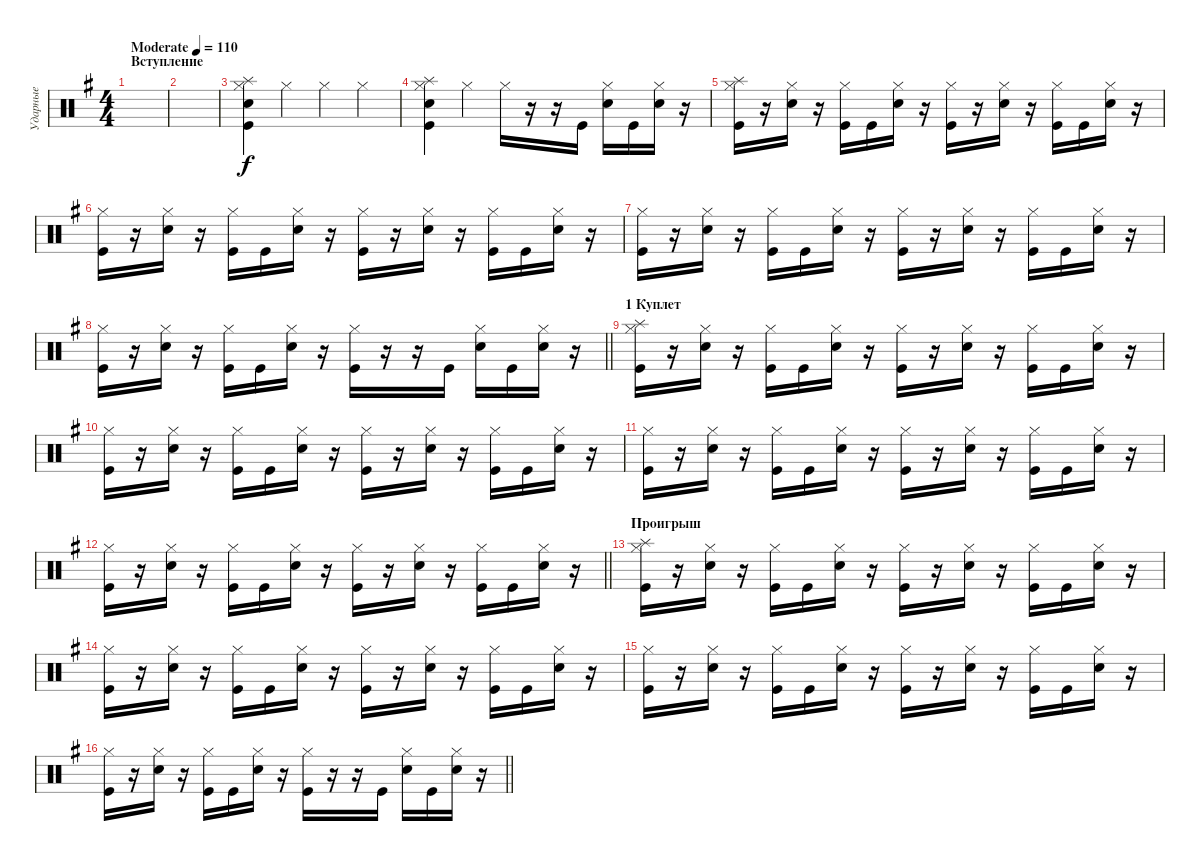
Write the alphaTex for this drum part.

\track ("Ударные" "Ударные") {instrument percussion}
\staff {score}
\articulation defaults
\ts (4 4)
\section ("" "Вступление")
\tempo (110 "Moderate")
\clef neutral
\ks eminor
|
|
("Hi-Hat (closed)" "Splash (hit)" "Electric Snare (hit)" "Kick (hit)").4 "Hi-Hat (closed)".4 "Hi-Hat (closed)".4 "Hi-Hat (closed)".4 |
("Hi-Hat (closed)" "Splash (hit)" "Electric Snare (hit)" "Kick (hit)").4 "Hi-Hat (closed)".4 "Hi-Hat (closed)".16 r.16 r.16 "Kick (hit)".16 ("Hi-Hat (closed)" "Electric Snare (hit)").16 "Kick (hit)".16 ("Hi-Hat (closed)" "Electric Snare (hit)").16 r.16 |
("Hi-Hat (closed)" "Splash (hit)" "Kick (hit)").16 r.16 ("Hi-Hat (closed)" "Electric Snare (hit)").16 r.16 ("Hi-Hat (closed)" "Kick (hit)").16 "Kick (hit)".16 ("Hi-Hat (closed)" "Electric Snare (hit)").16 r.16 ("Hi-Hat (closed)" "Kick (hit)").16 r.16 ("Hi-Hat (closed)" "Electric Snare (hit)").16 r.16 ("Hi-Hat (closed)" "Kick (hit)").16 "Kick (hit)".16 ("Hi-Hat (closed)" "Electric Snare (hit)").16 r.16 |
("Hi-Hat (closed)" "Kick (hit)").16 r.16 ("Hi-Hat (closed)" "Electric Snare (hit)").16 r.16 ("Hi-Hat (closed)" "Kick (hit)").16 "Kick (hit)".16 ("Hi-Hat (closed)" "Electric Snare (hit)").16 r.16 ("Hi-Hat (closed)" "Kick (hit)").16 r.16 ("Hi-Hat (closed)" "Electric Snare (hit)").16 r.16 ("Hi-Hat (closed)" "Kick (hit)").16 "Kick (hit)".16 ("Hi-Hat (closed)" "Electric Snare (hit)").16 r.16 |
("Hi-Hat (closed)" "Kick (hit)").16 r.16 ("Hi-Hat (closed)" "Electric Snare (hit)").16 r.16 ("Hi-Hat (closed)" "Kick (hit)").16 "Kick (hit)".16 ("Hi-Hat (closed)" "Electric Snare (hit)").16 r.16 ("Hi-Hat (closed)" "Kick (hit)").16 r.16 ("Hi-Hat (closed)" "Electric Snare (hit)").16 r.16 ("Hi-Hat (closed)" "Kick (hit)").16 "Kick (hit)".16 ("Hi-Hat (closed)" "Electric Snare (hit)").16 r.16 |
\barLineRight lightlight
("Hi-Hat (closed)" "Kick (hit)").16 r.16 ("Hi-Hat (closed)" "Electric Snare (hit)").16 r.16 ("Hi-Hat (closed)" "Kick (hit)").16 "Kick (hit)".16 ("Hi-Hat (closed)" "Electric Snare (hit)").16 r.16 ("Hi-Hat (closed)" "Kick (hit)").16 r.16 r.16 "Kick (hit)".16 ("Hi-Hat (closed)" "Electric Snare (hit)").16 "Kick (hit)".16 ("Hi-Hat (closed)" "Electric Snare (hit)").16 r.16 |
\section ("" "1 Куплет")
("Hi-Hat (closed)" "Splash (hit)" "Kick (hit)").16 r.16 ("Hi-Hat (closed)" "Electric Snare (hit)").16 r.16 ("Hi-Hat (closed)" "Kick (hit)").16 "Kick (hit)".16 ("Hi-Hat (closed)" "Electric Snare (hit)").16 r.16 ("Hi-Hat (closed)" "Kick (hit)").16 r.16 ("Hi-Hat (closed)" "Electric Snare (hit)").16 r.16 ("Hi-Hat (closed)" "Kick (hit)").16 "Kick (hit)".16 ("Hi-Hat (closed)" "Electric Snare (hit)").16 r.16 |
("Hi-Hat (closed)" "Kick (hit)").16 r.16 ("Hi-Hat (closed)" "Electric Snare (hit)").16 r.16 ("Hi-Hat (closed)" "Kick (hit)").16 "Kick (hit)".16 ("Hi-Hat (closed)" "Electric Snare (hit)").16 r.16 ("Hi-Hat (closed)" "Kick (hit)").16 r.16 ("Hi-Hat (closed)" "Electric Snare (hit)").16 r.16 ("Hi-Hat (closed)" "Kick (hit)").16 "Kick (hit)".16 ("Hi-Hat (closed)" "Electric Snare (hit)").16 r.16 |
("Hi-Hat (closed)" "Kick (hit)").16 r.16 ("Hi-Hat (closed)" "Electric Snare (hit)").16 r.16 ("Hi-Hat (closed)" "Kick (hit)").16 "Kick (hit)".16 ("Hi-Hat (closed)" "Electric Snare (hit)").16 r.16 ("Hi-Hat (closed)" "Kick (hit)").16 r.16 ("Hi-Hat (closed)" "Electric Snare (hit)").16 r.16 ("Hi-Hat (closed)" "Kick (hit)").16 "Kick (hit)".16 ("Hi-Hat (closed)" "Electric Snare (hit)").16 r.16 |
\barLineRight lightlight
("Hi-Hat (closed)" "Kick (hit)").16 r.16 ("Hi-Hat (closed)" "Electric Snare (hit)").16 r.16 ("Hi-Hat (closed)" "Kick (hit)").16 "Kick (hit)".16 ("Hi-Hat (closed)" "Electric Snare (hit)").16 r.16 ("Hi-Hat (closed)" "Kick (hit)").16 r.16 ("Hi-Hat (closed)" "Electric Snare (hit)").16 r.16 ("Hi-Hat (closed)" "Kick (hit)").16 "Kick (hit)".16 ("Hi-Hat (closed)" "Electric Snare (hit)").16 r.16 |
\section ("" "Проигрыш")
("Hi-Hat (closed)" "Splash (hit)" "Kick (hit)").16 r.16 ("Hi-Hat (closed)" "Electric Snare (hit)").16 r.16 ("Hi-Hat (closed)" "Kick (hit)").16 "Kick (hit)".16 ("Hi-Hat (closed)" "Electric Snare (hit)").16 r.16 ("Hi-Hat (closed)" "Kick (hit)").16 r.16 ("Hi-Hat (closed)" "Electric Snare (hit)").16 r.16 ("Hi-Hat (closed)" "Kick (hit)").16 "Kick (hit)".16 ("Hi-Hat (closed)" "Electric Snare (hit)").16 r.16 |
("Hi-Hat (closed)" "Kick (hit)").16 r.16 ("Hi-Hat (closed)" "Electric Snare (hit)").16 r.16 ("Hi-Hat (closed)" "Kick (hit)").16 "Kick (hit)".16 ("Hi-Hat (closed)" "Electric Snare (hit)").16 r.16 ("Hi-Hat (closed)" "Kick (hit)").16 r.16 ("Hi-Hat (closed)" "Electric Snare (hit)").16 r.16 ("Hi-Hat (closed)" "Kick (hit)").16 "Kick (hit)".16 ("Hi-Hat (closed)" "Electric Snare (hit)").16 r.16 |
("Hi-Hat (closed)" "Kick (hit)").16 r.16 ("Hi-Hat (closed)" "Electric Snare (hit)").16 r.16 ("Hi-Hat (closed)" "Kick (hit)").16 "Kick (hit)".16 ("Hi-Hat (closed)" "Electric Snare (hit)").16 r.16 ("Hi-Hat (closed)" "Kick (hit)").16 r.16 ("Hi-Hat (closed)" "Electric Snare (hit)").16 r.16 ("Hi-Hat (closed)" "Kick (hit)").16 "Kick (hit)".16 ("Hi-Hat (closed)" "Electric Snare (hit)").16 r.16 |
\barLineRight lightlight
("Hi-Hat (closed)" "Kick (hit)").16 r.16 ("Hi-Hat (closed)" "Electric Snare (hit)").16 r.16 ("Hi-Hat (closed)" "Kick (hit)").16 "Kick (hit)".16 ("Hi-Hat (closed)" "Electric Snare (hit)").16 r.16 ("Hi-Hat (closed)" "Kick (hit)").16 r.16 r.16 "Kick (hit)".16 ("Hi-Hat (closed)" "Electric Snare (hit)").16 "Kick (hit)".16 ("Hi-Hat (closed)" "Electric Snare (hit)").16 r.16
